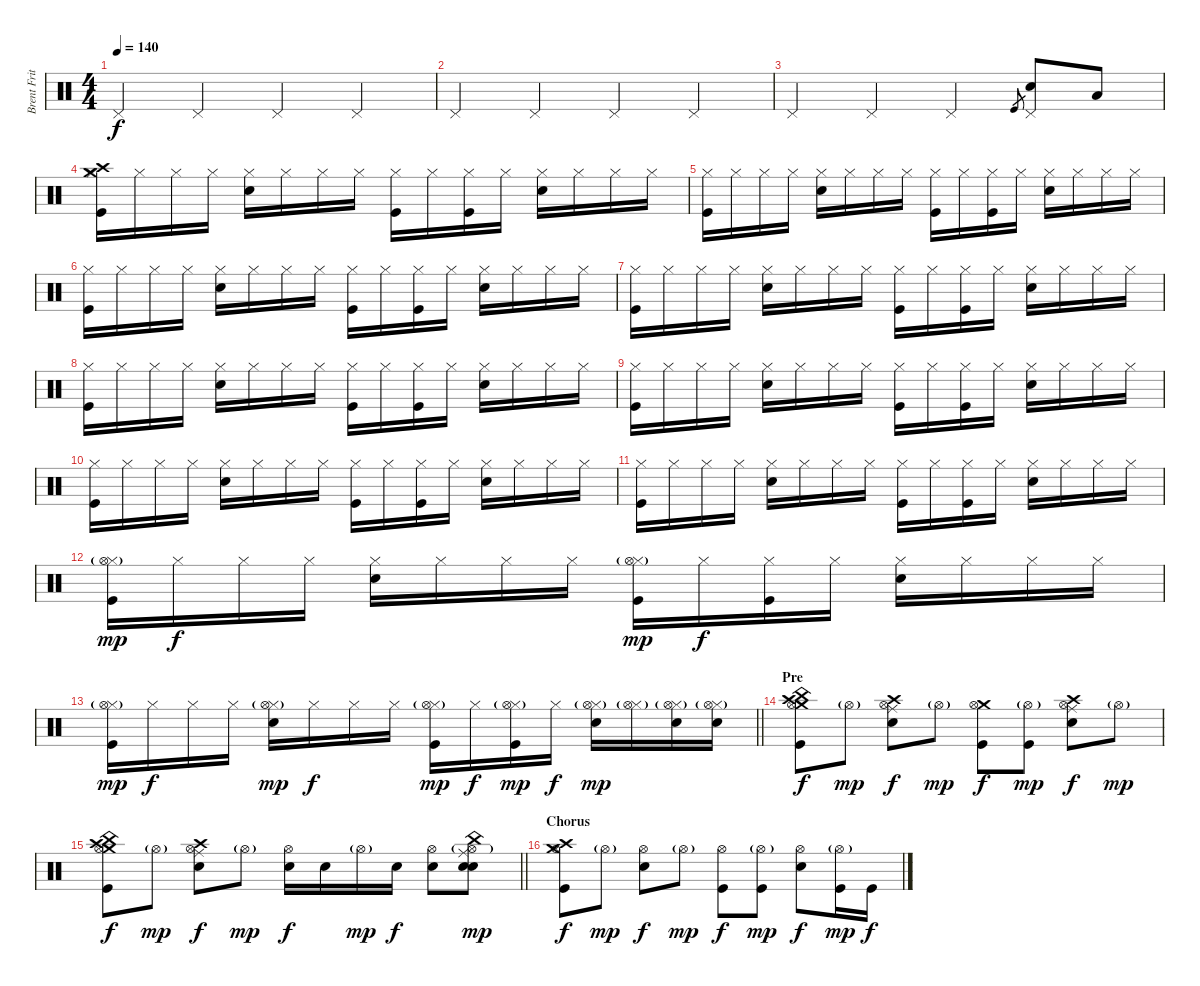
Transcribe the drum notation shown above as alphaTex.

\track ("Brent Fritz" "Brent Frit") {instrument percussion}
\staff {score}
\articulation defaults
\ts (4 4)
\tempo 140
\clef neutral
\ks c "Pedal Hi-Hat (hit)".4{dy f} "Pedal Hi-Hat (hit)".4 "Pedal Hi-Hat (hit)".4 "Pedal Hi-Hat (hit)".4
|
"Pedal Hi-Hat (hit)".4 "Pedal Hi-Hat (hit)".4 "Pedal Hi-Hat (hit)".4 "Pedal Hi-Hat (hit)".4 |
"Pedal Hi-Hat (hit)".4 "Pedal Hi-Hat (hit)".4 "Pedal Hi-Hat (hit)".4 "Kick (hit)".8{gr} ("Pedal Hi-Hat (hit)" "Electric Snare (hit)").8 "Low Floor Tom (hit)".8 |
("Crash high (hit)" "Crash medium (hit)" "Hi-Hat (closed)" "Kick (hit)").16 "Hi-Hat (closed)".16 "Hi-Hat (closed)".16 "Hi-Hat (closed)".16 ("Hi-Hat (closed)" "Electric Snare (hit)").16 "Hi-Hat (closed)".16 "Hi-Hat (closed)".16 "Hi-Hat (closed)".16 ("Hi-Hat (closed)" "Kick (hit)").16 "Hi-Hat (closed)".16 ("Hi-Hat (closed)" "Kick (hit)").16 "Hi-Hat (closed)".16 ("Hi-Hat (closed)" "Electric Snare (hit)").16 "Hi-Hat (closed)".16 "Hi-Hat (closed)".16 "Hi-Hat (closed)".16 |
("Hi-Hat (closed)" "Kick (hit)").16 "Hi-Hat (closed)".16 "Hi-Hat (closed)".16 "Hi-Hat (closed)".16 ("Hi-Hat (closed)" "Electric Snare (hit)").16 "Hi-Hat (closed)".16 "Hi-Hat (closed)".16 "Hi-Hat (closed)".16 ("Hi-Hat (closed)" "Kick (hit)").16 "Hi-Hat (closed)".16 ("Hi-Hat (closed)" "Kick (hit)").16 "Hi-Hat (closed)".16 ("Hi-Hat (closed)" "Electric Snare (hit)").16 "Hi-Hat (closed)".16 "Hi-Hat (closed)".16 "Hi-Hat (closed)".16 |
("Hi-Hat (closed)" "Kick (hit)").16 "Hi-Hat (closed)".16 "Hi-Hat (closed)".16 "Hi-Hat (closed)".16 ("Hi-Hat (closed)" "Electric Snare (hit)").16 "Hi-Hat (closed)".16 "Hi-Hat (closed)".16 "Hi-Hat (closed)".16 ("Hi-Hat (closed)" "Kick (hit)").16 "Hi-Hat (closed)".16 ("Hi-Hat (closed)" "Kick (hit)").16 "Hi-Hat (closed)".16 ("Hi-Hat (closed)" "Electric Snare (hit)").16 "Hi-Hat (closed)".16 "Hi-Hat (closed)".16 "Hi-Hat (closed)".16 |
("Hi-Hat (closed)" "Kick (hit)").16 "Hi-Hat (closed)".16 "Hi-Hat (closed)".16 "Hi-Hat (closed)".16 ("Hi-Hat (closed)" "Electric Snare (hit)").16 "Hi-Hat (closed)".16 "Hi-Hat (closed)".16 "Hi-Hat (closed)".16 ("Hi-Hat (closed)" "Kick (hit)").16 "Hi-Hat (closed)".16 ("Hi-Hat (closed)" "Kick (hit)").16 "Hi-Hat (closed)".16 ("Hi-Hat (closed)" "Electric Snare (hit)").16 "Hi-Hat (closed)".16 "Hi-Hat (closed)".16 "Hi-Hat (closed)".16 |
("Hi-Hat (closed)" "Kick (hit)").16 "Hi-Hat (closed)".16 "Hi-Hat (closed)".16 "Hi-Hat (closed)".16 ("Hi-Hat (closed)" "Electric Snare (hit)").16 "Hi-Hat (closed)".16 "Hi-Hat (closed)".16 "Hi-Hat (closed)".16 ("Hi-Hat (closed)" "Kick (hit)").16 "Hi-Hat (closed)".16 ("Hi-Hat (closed)" "Kick (hit)").16 "Hi-Hat (closed)".16 ("Hi-Hat (closed)" "Electric Snare (hit)").16 "Hi-Hat (closed)".16 "Hi-Hat (closed)".16 "Hi-Hat (closed)".16 |
("Hi-Hat (closed)" "Kick (hit)").16 "Hi-Hat (closed)".16 "Hi-Hat (closed)".16 "Hi-Hat (closed)".16 ("Hi-Hat (closed)" "Electric Snare (hit)").16 "Hi-Hat (closed)".16 "Hi-Hat (closed)".16 "Hi-Hat (closed)".16 ("Hi-Hat (closed)" "Kick (hit)").16 "Hi-Hat (closed)".16 ("Hi-Hat (closed)" "Kick (hit)").16 "Hi-Hat (closed)".16 ("Hi-Hat (closed)" "Electric Snare (hit)").16 "Hi-Hat (closed)".16 "Hi-Hat (closed)".16 "Hi-Hat (closed)".16 |
("Hi-Hat (closed)" "Kick (hit)").16 "Hi-Hat (closed)".16 "Hi-Hat (closed)".16 "Hi-Hat (closed)".16 ("Hi-Hat (closed)" "Electric Snare (hit)").16 "Hi-Hat (closed)".16 "Hi-Hat (closed)".16 "Hi-Hat (closed)".16 ("Hi-Hat (closed)" "Kick (hit)").16 "Hi-Hat (closed)".16 ("Hi-Hat (closed)" "Kick (hit)").16 "Hi-Hat (closed)".16 ("Hi-Hat (closed)" "Electric Snare (hit)").16 "Hi-Hat (closed)".16 "Hi-Hat (closed)".16 "Hi-Hat (closed)".16 |
("Hi-Hat (closed)" "Kick (hit)").16 "Hi-Hat (closed)".16 "Hi-Hat (closed)".16 "Hi-Hat (closed)".16 ("Hi-Hat (closed)" "Electric Snare (hit)").16 "Hi-Hat (closed)".16 "Hi-Hat (closed)".16 "Hi-Hat (closed)".16 ("Hi-Hat (closed)" "Kick (hit)").16 "Hi-Hat (closed)".16 ("Hi-Hat (closed)" "Kick (hit)").16 "Hi-Hat (closed)".16 ("Hi-Hat (closed)" "Electric Snare (hit)").16 "Hi-Hat (closed)".16 "Hi-Hat (closed)".16 "Hi-Hat (closed)".16 |
("Hi-Hat (closed)" "Hi-Hat (open)"{g} "Kick (hit)").16{dy mp} "Hi-Hat (closed)".16{dy f} "Hi-Hat (closed)".16 "Hi-Hat (closed)".16 ("Hi-Hat (closed)" "Electric Snare (hit)").16 "Hi-Hat (closed)".16 "Hi-Hat (closed)".16 "Hi-Hat (closed)".16 ("Hi-Hat (closed)" "Hi-Hat (open)"{g} "Kick (hit)").16{dy mp} "Hi-Hat (closed)".16{dy f} ("Hi-Hat (closed)" "Kick (hit)").16 "Hi-Hat (closed)".16 ("Hi-Hat (closed)" "Electric Snare (hit)").16 "Hi-Hat (closed)".16 "Hi-Hat (closed)".16 "Hi-Hat (closed)".16 |
\barLineRight lightlight
("Hi-Hat (closed)" "Hi-Hat (open)"{g} "Kick (hit)").16{dy mp} "Hi-Hat (closed)".16{dy f} "Hi-Hat (closed)".16 "Hi-Hat (closed)".16 ("Hi-Hat (closed)" "Hi-Hat (open)"{g} "Electric Snare (hit)").16{dy mp} "Hi-Hat (closed)".16{dy f} "Hi-Hat (closed)".16 "Hi-Hat (closed)".16 ("Hi-Hat (closed)" "Hi-Hat (open)"{g} "Kick (hit)").16{dy mp} "Hi-Hat (closed)".16{dy f} ("Hi-Hat (closed)" "Hi-Hat (open)"{g} "Kick (hit)").16{dy mp} "Hi-Hat (closed)".16{dy f} ("Hi-Hat (closed)" "Hi-Hat (open)"{g} "Electric Snare (hit)").16{dy mp} ("Hi-Hat (closed)" "Hi-Hat (open)"{g}).16 ("Hi-Hat (closed)" "Hi-Hat (open)"{g} "Electric Snare (hit)").16 ("Hi-Hat (closed)" "Hi-Hat (open)"{g} "Electric Snare (hit)").16 |
\section ("" "Pre")
("Crash high (hit)" "Crash medium (hit)" "Hi-Hat (open)" "China (hit)" "Kick (hit)").8{dy f} "Hi-Hat (open)"{g}.8{dy mp} ("Crash high (hit)" "Ride (middle)" "Hi-Hat (open)" "Electric Snare (hit)").8{dy f} "Hi-Hat (open)"{g}.8{dy mp} ("Crash medium (hit)" "Hi-Hat (open)" "Kick (hit)").8{dy f} ("Hi-Hat (open)"{g} "Kick (hit)").8{dy mp} ("Crash high (hit)" "Ride (middle)" "Hi-Hat (open)" "Electric Snare (hit)").8{dy f} "Hi-Hat (open)"{g}.8{dy mp} |
\barLineRight lightlight
("Crash high (hit)" "Crash medium (hit)" "Hi-Hat (open)" "China (hit)" "Kick (hit)").8{dy f} "Hi-Hat (open)"{g}.8{dy mp} ("Crash high (hit)" "Ride (middle)" "Hi-Hat (open)" "Electric Snare (hit)").8{dy f} "Hi-Hat (open)"{g}.8{dy mp} ("Hi-Hat (open)" "Electric Snare (hit)").16{dy f} "Electric Snare (hit)".16 "Hi-Hat (open)"{g}.16{dy mp} "Electric Snare (hit)".16{dy f} ("Hi-Hat (open)" "Electric Snare (hit)").8 ("Ride (middle)" "China (hit)" "Hi-Hat (open)"{g} "Electric Snare (hit)" "Electric Snare (hit)").8{dy mp} |
\section ("" "Chorus")
("Crash medium (hit)" "Crash high (hit)" "Hi-Hat (open)" "Kick (hit)").8{dy f} "Hi-Hat (open)"{g}.8{dy mp} ("Hi-Hat (open)" "Electric Snare (hit)").8{dy f} "Hi-Hat (open)"{g}.8{dy mp} ("Hi-Hat (open)" "Kick (hit)").8{dy f} ("Hi-Hat (open)"{g} "Kick (hit)").8{dy mp} ("Hi-Hat (open)" "Electric Snare (hit)").8{dy f} ("Hi-Hat (open)"{g} "Kick (hit)").16{dy mp} "Kick (hit)".16{dy f}
